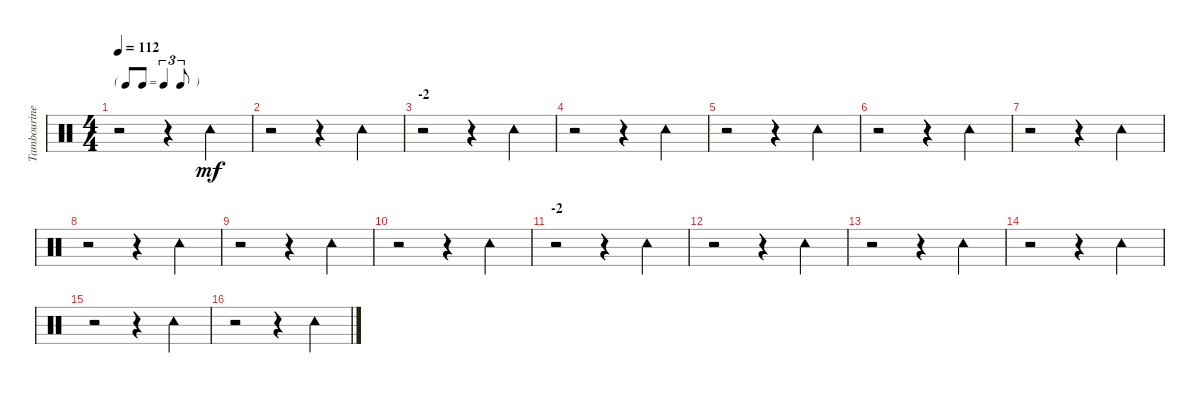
\track ("Tambourine" "Tambourine") {instrument percussion}
\staff {score}
\articulation defaults
\ts (4 4)
\tf triplet8th
\tempo 112
\clef neutral
\ks c
r.2{dy mf} r.4 "Tambourine (hit)".4 |
r.2 r.4 "Tambourine (hit)".4 |
\section ("" "-2")
r.2 r.4 "Tambourine (hit)".4 |
r.2 r.4 "Tambourine (hit)".4 |
r.2 r.4 "Tambourine (hit)".4 |
r.2 r.4 "Tambourine (hit)".4 |
r.2 r.4 "Tambourine (hit)".4 |
r.2 r.4 "Tambourine (hit)".4 |
r.2 r.4 "Tambourine (hit)".4 |
r.2 r.4 "Tambourine (hit)".4 |
\section ("" "-2")
r.2 r.4 "Tambourine (hit)".4 |
r.2 r.4 "Tambourine (hit)".4 |
r.2 r.4 "Tambourine (hit)".4 |
r.2 r.4 "Tambourine (hit)".4 |
r.2 r.4 "Tambourine (hit)".4 |
r.2 r.4 "Tambourine (hit)".4
